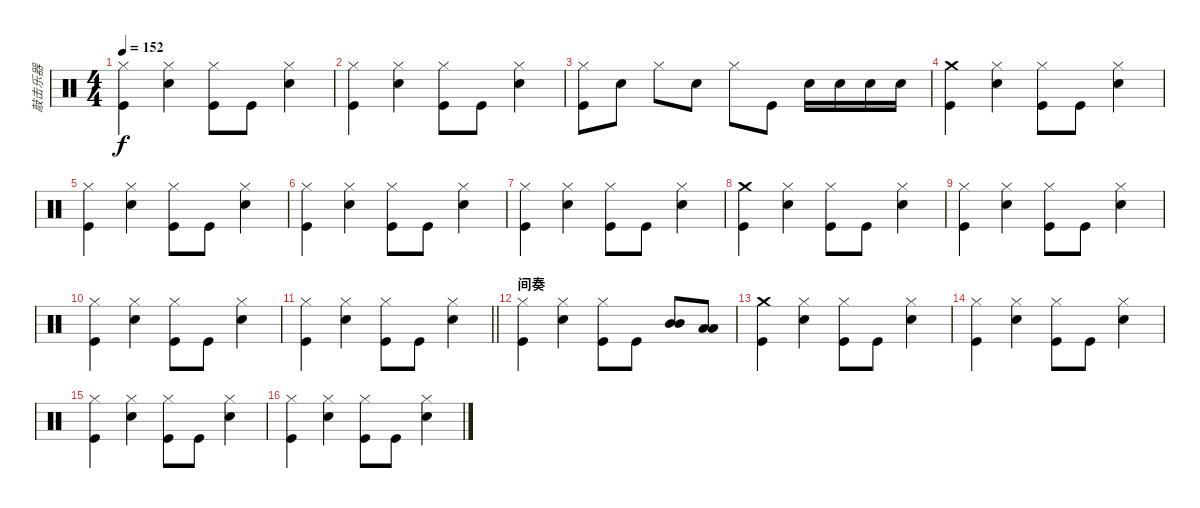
\track ("敲击乐器" "敲击乐器") {instrument percussion}
\staff {score}
\articulation defaults
\ts (4 4)
\tempo 152
\clef neutral
\ks c
("Hi-Hat (closed)" "Kick (hit)").4{dy f} ("Hi-Hat (closed)" "Electric Snare (hit)").4 ("Hi-Hat (closed)" "Kick (hit)").8 "Kick (hit)".8 ("Hi-Hat (closed)" "Electric Snare (hit)").4 |
("Hi-Hat (closed)" "Kick (hit)").4 ("Hi-Hat (closed)" "Electric Snare (hit)").4 ("Hi-Hat (closed)" "Kick (hit)").8 "Kick (hit)".8 ("Hi-Hat (closed)" "Electric Snare (hit)").4 |
("Hi-Hat (closed)" "Kick (hit)").8 "Electric Snare (hit)".8 "Hi-Hat (closed)".8 "Electric Snare (hit)".8 "Hi-Hat (closed)".8 "Kick (hit)".8 "Electric Snare (hit)".16 "Electric Snare (hit)".16 "Electric Snare (hit)".16 "Electric Snare (hit)".16 |
("Crash medium (hit)" "Kick (hit)").4 ("Hi-Hat (closed)" "Electric Snare (hit)").4 ("Hi-Hat (closed)" "Kick (hit)").8 "Kick (hit)".8 ("Hi-Hat (closed)" "Electric Snare (hit)").4 |
("Hi-Hat (closed)" "Kick (hit)").4 ("Hi-Hat (closed)" "Electric Snare (hit)").4 ("Hi-Hat (closed)" "Kick (hit)").8 "Kick (hit)".8 ("Hi-Hat (closed)" "Electric Snare (hit)").4 |
("Hi-Hat (closed)" "Kick (hit)").4 ("Hi-Hat (closed)" "Electric Snare (hit)").4 ("Hi-Hat (closed)" "Kick (hit)").8 "Kick (hit)".8 ("Hi-Hat (closed)" "Electric Snare (hit)").4 |
("Hi-Hat (closed)" "Kick (hit)").4 ("Hi-Hat (closed)" "Electric Snare (hit)").4 ("Hi-Hat (closed)" "Kick (hit)").8 "Kick (hit)".8 ("Hi-Hat (closed)" "Electric Snare (hit)").4 |
("Crash medium (hit)" "Kick (hit)").4 ("Hi-Hat (closed)" "Electric Snare (hit)").4 ("Hi-Hat (closed)" "Kick (hit)").8 "Kick (hit)".8 ("Hi-Hat (closed)" "Electric Snare (hit)").4 |
("Hi-Hat (closed)" "Kick (hit)").4 ("Hi-Hat (closed)" "Electric Snare (hit)").4 ("Hi-Hat (closed)" "Kick (hit)").8 "Kick (hit)".8 ("Hi-Hat (closed)" "Electric Snare (hit)").4 |
("Hi-Hat (closed)" "Kick (hit)").4 ("Hi-Hat (closed)" "Electric Snare (hit)").4 ("Hi-Hat (closed)" "Kick (hit)").8 "Kick (hit)".8 ("Hi-Hat (closed)" "Electric Snare (hit)").4 |
\barLineRight lightlight
("Hi-Hat (closed)" "Kick (hit)").4 ("Hi-Hat (closed)" "Electric Snare (hit)").4 ("Hi-Hat (closed)" "Kick (hit)").8 "Kick (hit)".8 ("Hi-Hat (closed)" "Electric Snare (hit)").4 |
\section ("" "间奏")
("Hi-Hat (closed)" "Kick (hit)").4 ("Hi-Hat (closed)" "Electric Snare (hit)").4 ("Hi-Hat (closed)" "Kick (hit)").8 "Kick (hit)".8 ("Mid Tom (hit)" "Mid Tom (hit)").8 ("Low Tom (hit)" "Low Tom (hit)").8 |
("Crash medium (hit)" "Kick (hit)").4 ("Hi-Hat (closed)" "Electric Snare (hit)").4 ("Hi-Hat (closed)" "Kick (hit)").8 "Kick (hit)".8 ("Hi-Hat (closed)" "Electric Snare (hit)").4 |
("Hi-Hat (closed)" "Kick (hit)").4 ("Hi-Hat (closed)" "Electric Snare (hit)").4 ("Hi-Hat (closed)" "Kick (hit)").8 "Kick (hit)".8 ("Hi-Hat (closed)" "Electric Snare (hit)").4 |
("Hi-Hat (closed)" "Kick (hit)").4 ("Hi-Hat (closed)" "Electric Snare (hit)").4 ("Hi-Hat (closed)" "Kick (hit)").8 "Kick (hit)".8 ("Hi-Hat (closed)" "Electric Snare (hit)").4 |
("Hi-Hat (closed)" "Kick (hit)").4 ("Hi-Hat (closed)" "Electric Snare (hit)").4 ("Hi-Hat (closed)" "Kick (hit)").8 "Kick (hit)".8 ("Hi-Hat (closed)" "Electric Snare (hit)").4
